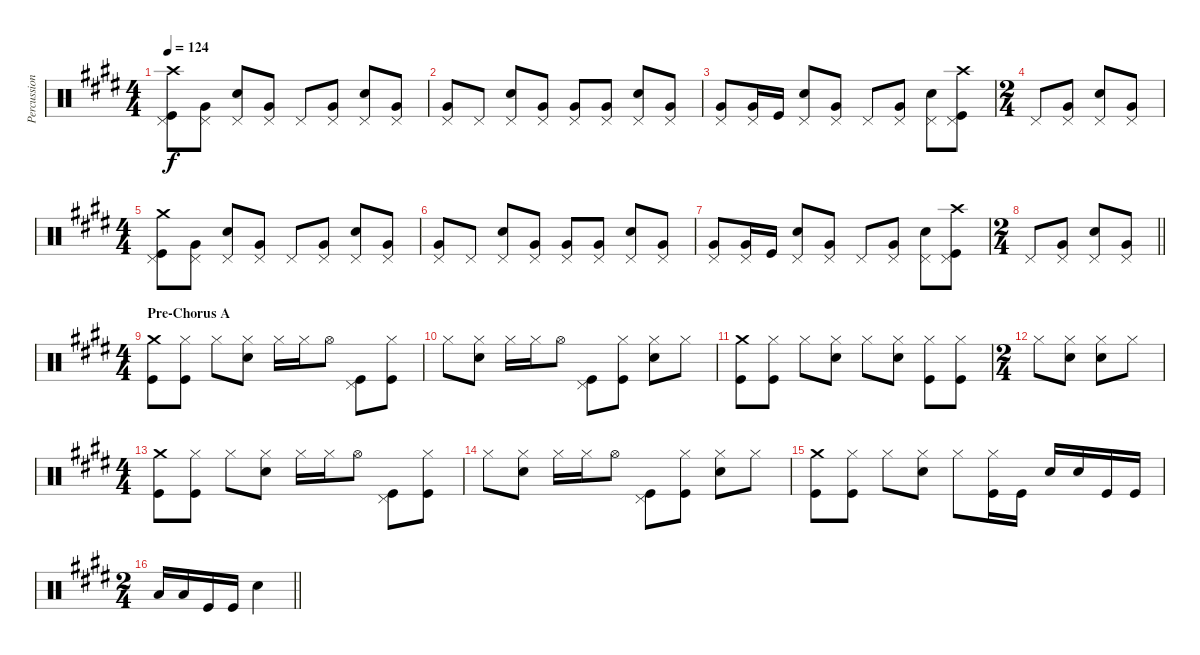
\track ("Percussion" "Percussion") {instrument percussion}
\staff {score}
\articulation defaults
\ts (4 4)
\tempo 124
\clef neutral
\ks e
("Crash high (hit)" "Pedal Hi-Hat (hit)" "Kick (hit)").8{dy f} ("Pedal Hi-Hat (hit)" "Very Low Tom (hit)").8 ("Pedal Hi-Hat (hit)" "Electric Snare (hit)").8 ("Pedal Hi-Hat (hit)" "Very Low Tom (hit)").8 "Pedal Hi-Hat (hit)".8 ("Pedal Hi-Hat (hit)" "Very Low Tom (hit)").8 ("Pedal Hi-Hat (hit)" "Electric Snare (hit)").8 ("Pedal Hi-Hat (hit)" "Very Low Tom (hit)").8 |
("Pedal Hi-Hat (hit)" "Very Low Tom (hit)").8 "Pedal Hi-Hat (hit)".8 ("Pedal Hi-Hat (hit)" "Electric Snare (hit)").8 ("Pedal Hi-Hat (hit)" "Very Low Tom (hit)").8 ("Pedal Hi-Hat (hit)" "Very Low Tom (hit)").8 ("Pedal Hi-Hat (hit)" "Very Low Tom (hit)").8 ("Pedal Hi-Hat (hit)" "Electric Snare (hit)").8 ("Pedal Hi-Hat (hit)" "Very Low Tom (hit)").8 |
("Pedal Hi-Hat (hit)" "Very Low Tom (hit)").8 ("Pedal Hi-Hat (hit)" "Very Low Tom (hit)").16 "Kick (hit)".16 ("Pedal Hi-Hat (hit)" "Electric Snare (hit)").8 ("Pedal Hi-Hat (hit)" "Very Low Tom (hit)").8 "Pedal Hi-Hat (hit)".8 ("Pedal Hi-Hat (hit)" "Very Low Tom (hit)").8 ("Pedal Hi-Hat (hit)" "Electric Snare (hit)").8 ("Crash high (hit)" "Pedal Hi-Hat (hit)" "Kick (hit)").8 |
\ts (2 4)
"Pedal Hi-Hat (hit)".8 ("Pedal Hi-Hat (hit)" "Very Low Tom (hit)").8 ("Pedal Hi-Hat (hit)" "Electric Snare (hit)").8 ("Pedal Hi-Hat (hit)" "Very Low Tom (hit)").8 |
\ts (4 4)
("Crash medium (hit)" "Pedal Hi-Hat (hit)" "Kick (hit)").8 ("Pedal Hi-Hat (hit)" "Very Low Tom (hit)").8 ("Pedal Hi-Hat (hit)" "Electric Snare (hit)").8 ("Pedal Hi-Hat (hit)" "Very Low Tom (hit)").8 "Pedal Hi-Hat (hit)".8 ("Pedal Hi-Hat (hit)" "Very Low Tom (hit)").8 ("Pedal Hi-Hat (hit)" "Electric Snare (hit)").8 ("Pedal Hi-Hat (hit)" "Very Low Tom (hit)").8 |
("Pedal Hi-Hat (hit)" "Very Low Tom (hit)").8 "Pedal Hi-Hat (hit)".8 ("Pedal Hi-Hat (hit)" "Electric Snare (hit)").8 ("Pedal Hi-Hat (hit)" "Very Low Tom (hit)").8 ("Pedal Hi-Hat (hit)" "Very Low Tom (hit)").8 ("Pedal Hi-Hat (hit)" "Very Low Tom (hit)").8 ("Pedal Hi-Hat (hit)" "Electric Snare (hit)").8 ("Pedal Hi-Hat (hit)" "Very Low Tom (hit)").8 |
("Pedal Hi-Hat (hit)" "Very Low Tom (hit)").8 ("Pedal Hi-Hat (hit)" "Very Low Tom (hit)").16 "Kick (hit)".16 ("Pedal Hi-Hat (hit)" "Electric Snare (hit)").8 ("Pedal Hi-Hat (hit)" "Very Low Tom (hit)").8 "Pedal Hi-Hat (hit)".8 ("Pedal Hi-Hat (hit)" "Very Low Tom (hit)").8 ("Pedal Hi-Hat (hit)" "Electric Snare (hit)").8 ("Crash high (hit)" "Pedal Hi-Hat (hit)" "Kick (hit)").8 |
\ts (2 4)
\barLineRight lightlight "Pedal Hi-Hat (hit)".8
("Pedal Hi-Hat (hit)" "Very Low Tom (hit)").8 ("Pedal Hi-Hat (hit)" "Electric Snare (hit)").8 ("Pedal Hi-Hat (hit)" "Very Low Tom (hit)").8 |
\ts (4 4)
\section ("" "Pre-Chorus A")
("Crash medium (hit)" "Kick (hit)").8 ("Hi-Hat (closed)" "Kick (hit)").8 "Hi-Hat (closed)".8 ("Hi-Hat (closed)" "Electric Snare (hit)").8 "Hi-Hat (closed)".16 "Hi-Hat (closed)".16 "Hi-Hat (open)".8 ("Pedal Hi-Hat (hit)" "Kick (hit)").8 ("Hi-Hat (closed)" "Kick (hit)").8 |
"Hi-Hat (closed)".8 ("Hi-Hat (closed)" "Electric Snare (hit)").8 "Hi-Hat (closed)".16 "Hi-Hat (closed)".16 "Hi-Hat (open)".8 ("Pedal Hi-Hat (hit)" "Kick (hit)").8 ("Hi-Hat (closed)" "Kick (hit)").8 ("Hi-Hat (closed)" "Electric Snare (hit)").8 "Hi-Hat (closed)".8 |
("Crash medium (hit)" "Kick (hit)").8 ("Hi-Hat (closed)" "Kick (hit)").8 "Hi-Hat (closed)".8 ("Hi-Hat (closed)" "Electric Snare (hit)").8 "Hi-Hat (closed)".8 ("Hi-Hat (closed)" "Electric Snare (hit)").8 ("Hi-Hat (closed)" "Kick (hit)").8 ("Hi-Hat (closed)" "Kick (hit)").8 |
\ts (2 4)
"Hi-Hat (closed)".8 ("Hi-Hat (closed)" "Electric Snare (hit)").8 ("Hi-Hat (closed)" "Electric Snare (hit)").8 "Hi-Hat (closed)".8 |
\ts (4 4)
("Crash medium (hit)" "Kick (hit)").8 ("Hi-Hat (closed)" "Kick (hit)").8 "Hi-Hat (closed)".8 ("Hi-Hat (closed)" "Electric Snare (hit)").8 "Hi-Hat (closed)".16 "Hi-Hat (closed)".16 "Hi-Hat (open)".8 ("Pedal Hi-Hat (hit)" "Kick (hit)").8 ("Hi-Hat (closed)" "Kick (hit)").8 |
"Hi-Hat (closed)".8 ("Hi-Hat (closed)" "Electric Snare (hit)").8 "Hi-Hat (closed)".16 "Hi-Hat (closed)".16 "Hi-Hat (open)".8 ("Pedal Hi-Hat (hit)" "Kick (hit)").8 ("Hi-Hat (closed)" "Kick (hit)").8 ("Hi-Hat (closed)" "Electric Snare (hit)").8 "Hi-Hat (closed)".8 |
("Crash medium (hit)" "Kick (hit)").8 ("Hi-Hat (closed)" "Kick (hit)").8 "Hi-Hat (closed)".8 ("Hi-Hat (closed)" "Electric Snare (hit)").8 "Hi-Hat (closed)".8 ("Hi-Hat (closed)" "Kick (hit)").16 "Kick (hit)".16 "Electric Snare (hit)".16 "Electric Snare (hit)".16 "Kick (hit)".16 "Kick (hit)".16 |
\ts (2 4)
\barLineRight lightlight "Low Tom (hit)".16 "Low Tom (hit)".16 "Kick (hit)".16 "Kick (hit)".16 "Electric Snare (hit)".4
